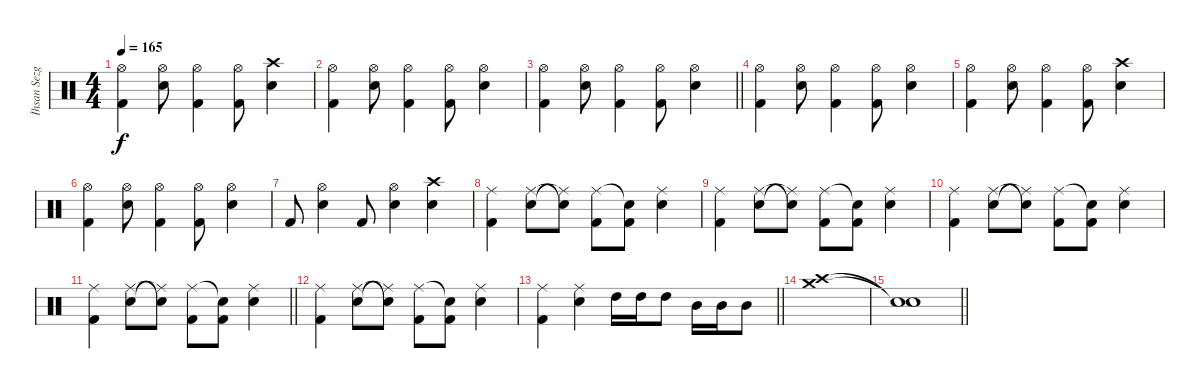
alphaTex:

\track ("İhsan Sezgin" "İhsan Sezg") {instrument percussion}
\staff {score}
\articulation defaults
\ts (4 4)
\tempo 165
\clef neutral
\ks c
("Hi-Hat (open)" "Kick (hit) 2").4{dy f} ("Snare (hit) 2" "Hi-Hat (open)").8 ("Hi-Hat (open)" "Kick (hit) 2").4 ("Hi-Hat (open)" "Kick (hit) 2").8 ("Snare (hit) 2" "Crash high (hit)").4 |
("Hi-Hat (open)" "Kick (hit) 2").4 ("Snare (hit) 2" "Hi-Hat (open)").8 ("Hi-Hat (open)" "Kick (hit) 2").4 ("Hi-Hat (open)" "Kick (hit) 2").8 ("Snare (hit) 2" "Hi-Hat (open)").4 |
\barLineRight lightlight
("Hi-Hat (open)" "Kick (hit) 2").4 ("Snare (hit) 2" "Hi-Hat (open)").8 ("Hi-Hat (open)" "Kick (hit) 2").4 ("Hi-Hat (open)" "Kick (hit) 2").8 ("Snare (hit) 2" "Hi-Hat (open)").4 |
("Hi-Hat (open)" "Kick (hit) 2").4 ("Snare (hit) 2" "Hi-Hat (open)").8 ("Hi-Hat (open)" "Kick (hit) 2").4 ("Hi-Hat (open)" "Kick (hit) 2").8 ("Snare (hit) 2" "Hi-Hat (open)").4 |
("Hi-Hat (open)" "Kick (hit) 2").4 ("Snare (hit) 2" "Hi-Hat (open)").8 ("Hi-Hat (open)" "Kick (hit) 2").4 ("Hi-Hat (open)" "Kick (hit) 2").8 ("Snare (hit) 2" "Crash high (hit)").4 |
("Hi-Hat (open)" "Kick (hit) 2").4 ("Snare (hit) 2" "Hi-Hat (open)").8 ("Hi-Hat (open)" "Kick (hit) 2").4 ("Hi-Hat (open)" "Kick (hit) 2").8 ("Snare (hit) 2" "Hi-Hat (open)").4 |
"Kick (hit) 2".8 ("Hi-Hat (open)" "Snare (hit) 2").4 "Kick (hit) 2".8 ("Hi-Hat (open)" "Snare (hit) 2").4 ("Crash high (hit)" "Snare (hit) 2").4 |
("Ride (middle)" "Kick (hit) 2").4 ("Snare (hit) 2" "Ride (middle)").8 ("Ride (middle)"{t} "Snare (hit)"{t}).8 ("Kick (hit) 2" "Ride (middle)").8 ("Kick (hit) 2" "Snare (hit)"{t}).8 ("Snare (hit) 2" "Ride (middle)").4 |
("Ride (middle)" "Kick (hit) 2").4 ("Snare (hit) 2" "Ride (middle)").8 ("Ride (middle)"{t} "Snare (hit)"{t}).8 ("Kick (hit) 2" "Ride (middle)").8 ("Kick (hit) 2" "Snare (hit)"{t}).8 ("Snare (hit) 2" "Ride (middle)").4 |
("Ride (middle)" "Kick (hit) 2").4 ("Snare (hit) 2" "Ride (middle)").8 ("Ride (middle)"{t} "Snare (hit)"{t}).8 ("Kick (hit) 2" "Ride (middle)").8 ("Kick (hit) 2" "Snare (hit)"{t}).8 ("Snare (hit) 2" "Ride (middle)").4 |
\barLineRight lightlight
("Ride (middle)" "Kick (hit) 2").4 ("Snare (hit) 2" "Ride (middle)").8 ("Ride (middle)"{t} "Snare (hit)"{t}).8 ("Kick (hit) 2" "Ride (middle)").8 ("Kick (hit) 2" "Snare (hit)"{t}).8 ("Snare (hit) 2" "Ride (middle)").4 |
("Ride (middle)" "Kick (hit) 2").4 ("Snare (hit) 2" "Ride (middle)").8 ("Ride (middle)"{t} "Snare (hit)"{t}).8 ("Kick (hit) 2" "Ride (middle)").8 ("Kick (hit) 2" "Snare (hit)"{t}).8 ("Snare (hit) 2" "Ride (middle)").4 |
\barLineRight lightlight
("Ride (middle)" "Kick (hit) 2").4 ("Snare (hit) 2" "Ride (middle)").4 "High Tom (hit)".16 "High Tom (hit)".16 "High Tom (hit)".8 "Mid Tom (hit)".16 "Mid Tom (hit)".16 "Mid Tom (hit)".8 |
("Crash medium (hit)" "Crash high (hit)").1 |
\barLineRight lightlight
("Snare (hit)"{t} "Snare (hit)"{t}).1
